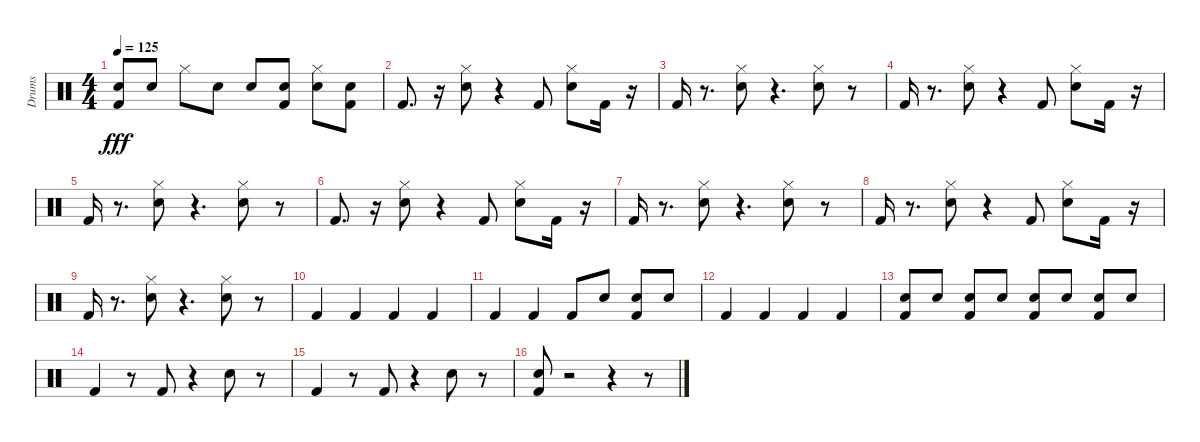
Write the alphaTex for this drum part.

\track ("Drums" "Drums") {instrument percussion}
\staff {score}
\articulation defaults
\ts (4 4)
\tempo 125
\clef neutral
\ks c
("Kick (hit) 2" "Snare (hit) 2").8{dy fff} "Snare (hit) 2".8 "Hi-Hat (closed)".8 "Snare (hit) 2".8 "Snare (hit) 2".8 ("Kick (hit) 2" "Snare (hit) 2").8 ("Hi-Hat (closed)" "Snare (hit) 2").8 ("Kick (hit) 2" "Snare (hit) 2").8 |
"Kick (hit) 2".8{d} r.16 ("Hi-Hat (closed)" "Snare (hit) 2").8 r.4 "Kick (hit) 2".8 ("Hi-Hat (closed)" "Snare (hit) 2").8 "Kick (hit) 2".16 r.16 |
"Kick (hit) 2".16 r.8{d} ("Hi-Hat (closed)" "Snare (hit) 2").8 r.4{d} ("Hi-Hat (closed)" "Snare (hit) 2").8 r.8 |
"Kick (hit) 2".16 r.8{d} ("Hi-Hat (closed)" "Snare (hit) 2").8 r.4 "Kick (hit) 2".8 ("Hi-Hat (closed)" "Snare (hit) 2").8 "Kick (hit) 2".16 r.16 |
"Kick (hit) 2".16 r.8{d} ("Hi-Hat (closed)" "Snare (hit) 2").8 r.4{d} ("Hi-Hat (closed)" "Snare (hit) 2").8 r.8 |
"Kick (hit) 2".8{d} r.16 ("Hi-Hat (closed)" "Snare (hit) 2").8 r.4 "Kick (hit) 2".8 ("Hi-Hat (closed)" "Snare (hit) 2").8 "Kick (hit) 2".16 r.16 |
"Kick (hit) 2".16 r.8{d} ("Hi-Hat (closed)" "Snare (hit) 2").8 r.4{d} ("Hi-Hat (closed)" "Snare (hit) 2").8 r.8 |
"Kick (hit) 2".16 r.8{d} ("Hi-Hat (closed)" "Snare (hit) 2").8 r.4 "Kick (hit) 2".8 ("Hi-Hat (closed)" "Snare (hit) 2").8 "Kick (hit) 2".16 r.16 |
"Kick (hit) 2".16 r.8{d} ("Hi-Hat (closed)" "Snare (hit) 2").8 r.4{d} ("Hi-Hat (closed)" "Snare (hit) 2").8 r.8 |
"Kick (hit) 2".4 "Kick (hit) 2".4 "Kick (hit) 2".4 "Kick (hit) 2".4 |
"Kick (hit) 2".4 "Kick (hit) 2".4 "Kick (hit) 2".8 "Snare (hit) 2".8 ("Kick (hit) 2" "Snare (hit) 2").8 "Snare (hit) 2".8 |
"Kick (hit) 2".4 "Kick (hit) 2".4 "Kick (hit) 2".4 "Kick (hit) 2".4 |
("Kick (hit) 2" "Snare (hit) 2").8 "Snare (hit) 2".8 ("Kick (hit) 2" "Snare (hit) 2").8 "Snare (hit) 2".8 ("Kick (hit) 2" "Snare (hit) 2").8 "Snare (hit) 2".8 ("Kick (hit) 2" "Snare (hit) 2").8 "Snare (hit) 2".8 |
"Kick (hit) 2".4 r.8 "Kick (hit) 2".8 r.4 "Snare (hit) 2".8 r.8 |
"Kick (hit) 2".4 r.8 "Kick (hit) 2".8 r.4 "Snare (hit) 2".8 r.8 |
("Snare (hit) 2" "Kick (hit) 2").8 r.2 r.4 r.8
